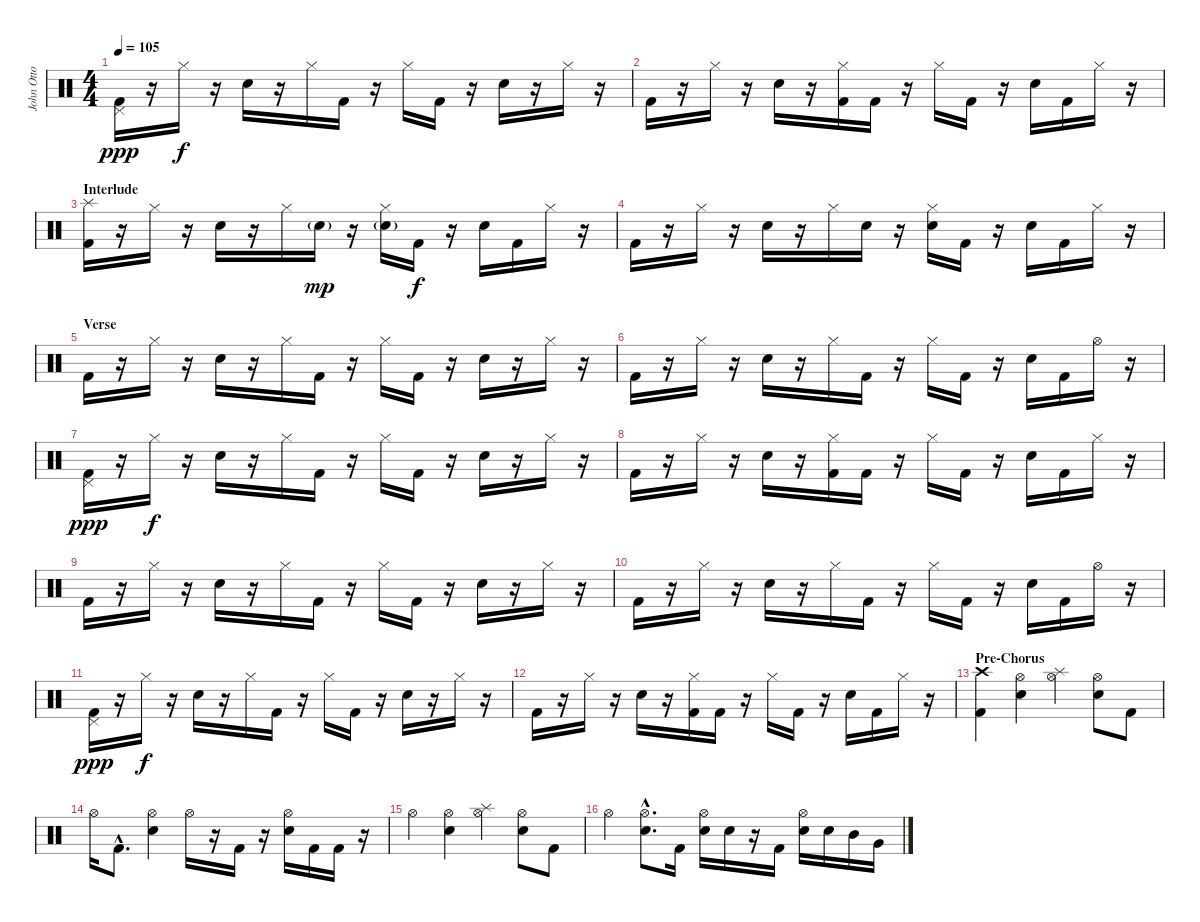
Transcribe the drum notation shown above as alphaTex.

\track ("John Otto - Drums" "John Otto ") {instrument percussion}
\staff {score}
\articulation defaults
\ts (4 4)
\tempo 105
\clef neutral
\ks c
("Pedal Hi-Hat (hit)" "Kick (hit) 2").16{dy ppp} r.16 "Hi-Hat (closed)".16{dy f} r.16 "Electric Snare (hit)".16 r.16 "Hi-Hat (closed)".16 "Kick (hit) 2".16 r.16 "Hi-Hat (closed)".16 "Kick (hit) 2".16 r.16 "Electric Snare (hit)".16 r.16 "Hi-Hat (closed)".16 r.16 |
"Kick (hit) 2".16 r.16 "Hi-Hat (closed)".16 r.16 "Electric Snare (hit)".16 r.16 ("Hi-Hat (closed)" "Kick (hit) 2").16 "Kick (hit) 2".16 r.16 "Hi-Hat (closed)".16 "Kick (hit) 2".16 r.16 "Electric Snare (hit)".16 "Kick (hit) 2".16 "Hi-Hat (closed)".16 r.16 |
\section ("" "Interlude")
("Splash (hit)" "Kick (hit) 2").16 r.16 "Hi-Hat (closed)".16 r.16 "Electric Snare (hit)".16 r.16 "Hi-Hat (closed)".16 "Electric Snare (hit)"{g}.16{dy mp} r.16 ("Hi-Hat (closed)" "Electric Snare (hit)"{g}).16 "Kick (hit) 2".16{dy f} r.16 "Electric Snare (hit)".16 "Kick (hit) 2".16 "Hi-Hat (closed)".16 r.16 |
"Kick (hit) 2".16 r.16 "Hi-Hat (closed)".16 r.16 "Electric Snare (hit)".16 r.16 "Hi-Hat (closed)".16 "Electric Snare (hit)".16 r.16 ("Hi-Hat (closed)" "Electric Snare (hit)").16 "Kick (hit) 2".16 r.16 "Electric Snare (hit)".16 "Kick (hit) 2".16 "Hi-Hat (closed)".16 r.16 |
\section ("" "Verse")
"Kick (hit) 2".16 r.16 "Hi-Hat (closed)".16 r.16 "Electric Snare (hit)".16 r.16 "Hi-Hat (closed)".16 "Kick (hit) 2".16 r.16 "Hi-Hat (closed)".16 "Kick (hit) 2".16 r.16 "Electric Snare (hit)".16 r.16 "Hi-Hat (closed)".16 r.16 |
"Kick (hit) 2".16 r.16 "Hi-Hat (closed)".16 r.16 "Electric Snare (hit)".16 r.16 "Hi-Hat (closed)".16 "Kick (hit) 2".16 r.16 "Hi-Hat (closed)".16 "Kick (hit) 2".16 r.16 "Electric Snare (hit)".16 "Kick (hit) 2".16 "Hi-Hat (open)".16 r.16 |
("Pedal Hi-Hat (hit)" "Kick (hit) 2").16{dy ppp} r.16 "Hi-Hat (closed)".16{dy f} r.16 "Electric Snare (hit)".16 r.16 "Hi-Hat (closed)".16 "Kick (hit) 2".16 r.16 "Hi-Hat (closed)".16 "Kick (hit) 2".16 r.16 "Electric Snare (hit)".16 r.16 "Hi-Hat (closed)".16 r.16 |
"Kick (hit) 2".16 r.16 "Hi-Hat (closed)".16 r.16 "Electric Snare (hit)".16 r.16 ("Hi-Hat (closed)" "Kick (hit) 2").16 "Kick (hit) 2".16 r.16 "Hi-Hat (closed)".16 "Kick (hit) 2".16 r.16 "Electric Snare (hit)".16 "Kick (hit) 2".16 "Hi-Hat (closed)".16 r.16 |
"Kick (hit) 2".16 r.16 "Hi-Hat (closed)".16 r.16 "Electric Snare (hit)".16 r.16 "Hi-Hat (closed)".16 "Kick (hit) 2".16 r.16 "Hi-Hat (closed)".16 "Kick (hit) 2".16 r.16 "Electric Snare (hit)".16 r.16 "Hi-Hat (closed)".16 r.16 |
"Kick (hit) 2".16 r.16 "Hi-Hat (closed)".16 r.16 "Electric Snare (hit)".16 r.16 "Hi-Hat (closed)".16 "Kick (hit) 2".16 r.16 "Hi-Hat (closed)".16 "Kick (hit) 2".16 r.16 "Electric Snare (hit)".16 "Kick (hit) 2".16 "Hi-Hat (open)".16 r.16 |
("Pedal Hi-Hat (hit)" "Kick (hit) 2").16{dy ppp} r.16 "Hi-Hat (closed)".16{dy f} r.16 "Electric Snare (hit)".16 r.16 "Hi-Hat (closed)".16 "Kick (hit) 2".16 r.16 "Hi-Hat (closed)".16 "Kick (hit) 2".16 r.16 "Electric Snare (hit)".16 r.16 "Hi-Hat (closed)".16 r.16 |
"Kick (hit) 2".16 r.16 "Hi-Hat (closed)".16 r.16 "Electric Snare (hit)".16 r.16 ("Hi-Hat (closed)" "Kick (hit) 2").16 "Kick (hit) 2".16 r.16 "Hi-Hat (closed)".16 "Kick (hit) 2".16 r.16 "Electric Snare (hit)".16 "Kick (hit) 2".16 "Hi-Hat (closed)".16 r.16 |
\section ("" "Pre-Chorus")
("Crash high (hit)" "Kick (hit) 2").4 ("Hi-Hat (open)" "Electric Snare (hit)").4 ("Hi-Hat (open)" "Splash (hit)").4 ("Hi-Hat (open)" "Electric Snare (hit)").8 "Kick (hit) 2".8 |
"Hi-Hat (open)".16 "Kick (hit) 2"{hac}.8{d} ("Hi-Hat (open)" "Electric Snare (hit)").4 "Hi-Hat (open)".16 r.16 "Kick (hit) 2".16 r.16 ("Hi-Hat (open)" "Electric Snare (hit)").16 "Kick (hit) 2".16 "Kick (hit) 2".16 r.16 |
"Hi-Hat (open)".4 ("Hi-Hat (open)" "Electric Snare (hit)").4 ("Hi-Hat (open)" "Splash (hit)").4 ("Hi-Hat (open)" "Electric Snare (hit)").8 "Kick (hit) 2".8 |
"Hi-Hat (open)".4 ("Hi-Hat (open)"{hac} "Electric Snare (hit)"{hac}).8{d} "Kick (hit) 2".16 ("Hi-Hat (open)" "Electric Snare (hit)").16 "Electric Snare (hit)".16 r.16 "Kick (hit) 2".16 ("Hi-Hat (open)" "Electric Snare (hit)").16 "Electric Snare (hit)".16 "Mid Tom (hit)".16 "Very Low Tom (hit)".16
